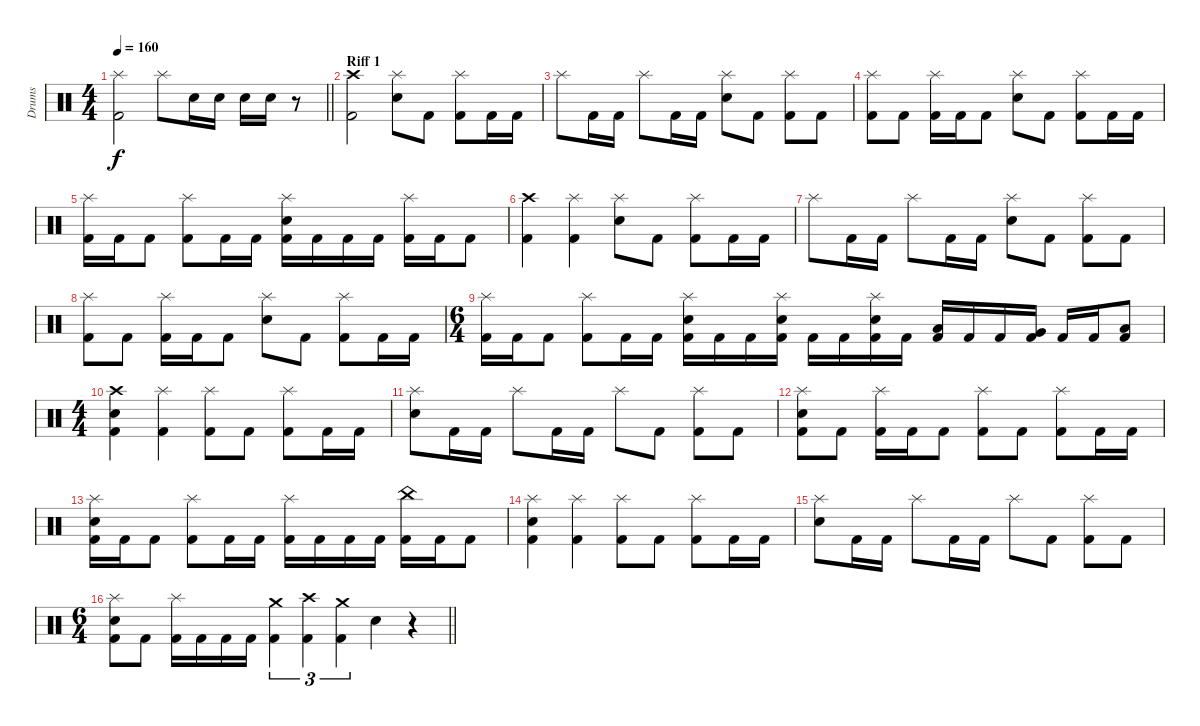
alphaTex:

\track ("Drums" "Drums") {instrument percussion}
\staff {score}
\articulation defaults
\ts (4 4)
\tempo 160
\clef neutral
\barLineRight lightlight
\ks c
("Splash (hit)" "Kick (hit) 2").2{dy f} "Splash (hit)".8 "Snare (hit) 2".16 "Snare (hit) 2".16 "Snare (hit) 2".16 "Snare (hit) 2".16 r.8 |
\section ("" "Riff 1")
("Crash high (hit)" "Kick (hit) 2").2 ("Splash (hit)" "Snare (hit) 2").8 "Kick (hit) 2".8 ("Splash (hit)" "Kick (hit) 2").8 "Kick (hit) 2".16 "Kick (hit) 2".16 |
"Splash (hit)".8 "Kick (hit) 2".16 "Kick (hit) 2".16 "Splash (hit)".8 "Kick (hit) 2".16 "Kick (hit) 2".16 ("Splash (hit)" "Snare (hit) 2").8 "Kick (hit) 2".8 ("Splash (hit)" "Kick (hit) 2").8 "Kick (hit) 2".8 |
("Splash (hit)" "Kick (hit) 2").8 "Kick (hit) 2".8 ("Splash (hit)" "Kick (hit) 2").16 "Kick (hit) 2".16 "Kick (hit) 2".8 ("Splash (hit)" "Snare (hit) 2").8 "Kick (hit) 2".8 ("Splash (hit)" "Kick (hit) 2").8 "Kick (hit) 2".16 "Kick (hit) 2".16 |
("Splash (hit)" "Kick (hit) 2").16 "Kick (hit) 2".16 "Kick (hit) 2".8 ("Splash (hit)" "Kick (hit) 2").8 "Kick (hit) 2".16 "Kick (hit) 2".16 ("Splash (hit)" "Snare (hit) 2" "Kick (hit) 2").16 "Kick (hit) 2".16 "Kick (hit) 2".16 "Kick (hit) 2".16 ("Splash (hit)" "Kick (hit) 2").16 "Kick (hit) 2".16 "Kick (hit) 2".8 |
("Crash high (hit)" "Kick (hit) 2").4 ("Splash (hit)" "Kick (hit) 2").4 ("Splash (hit)" "Snare (hit) 2").8 "Kick (hit) 2".8 ("Splash (hit)" "Kick (hit) 2").8 "Kick (hit) 2".16 "Kick (hit) 2".16 |
"Splash (hit)".8 "Kick (hit) 2".16 "Kick (hit) 2".16 "Splash (hit)".8 "Kick (hit) 2".16 "Kick (hit) 2".16 ("Splash (hit)" "Snare (hit) 2").8 "Kick (hit) 2".8 ("Splash (hit)" "Kick (hit) 2").8 "Kick (hit) 2".8 |
("Splash (hit)" "Kick (hit) 2").8 "Kick (hit) 2".8 ("Splash (hit)" "Kick (hit) 2").16 "Kick (hit) 2".16 "Kick (hit) 2".8 ("Splash (hit)" "Snare (hit) 2").8 "Kick (hit) 2".8 ("Splash (hit)" "Kick (hit) 2").8 "Kick (hit) 2".16 "Kick (hit) 2".16 |
\ts (6 4)
("Splash (hit)" "Kick (hit) 2").16 "Kick (hit) 2".16 "Kick (hit) 2".8 ("Splash (hit)" "Kick (hit) 2").8 "Kick (hit) 2".16 "Kick (hit) 2".16 ("Splash (hit)" "Snare (hit) 2" "Kick (hit) 2").16 "Kick (hit) 2".16 "Kick (hit) 2".16 ("Splash (hit)" "Snare (hit) 2" "Kick (hit) 2").16 "Kick (hit) 2".16 "Kick (hit) 2".16 ("Splash (hit)" "Snare (hit) 2" "Kick (hit) 2").16 "Kick (hit) 2".16 ("Low Tom (hit)" "Kick (hit) 2").16 "Kick (hit) 2".16 "Kick (hit) 2".16 ("Very Low Tom (hit)" "Kick (hit) 2").16 "Kick (hit) 2".16 "Kick (hit) 2".16 ("Low Floor Tom (hit)" "Kick (hit) 2").8 |
\ts (4 4)
("Crash high (hit)" "Snare (hit) 2" "Kick (hit) 2").4 ("Splash (hit)" "Kick (hit) 2").4 ("Splash (hit)" "Kick (hit) 2").8 "Kick (hit) 2".8 ("Splash (hit)" "Kick (hit) 2").8 "Kick (hit) 2".16 "Kick (hit) 2".16 |
("Splash (hit)" "Snare (hit) 2").8 "Kick (hit) 2".16 "Kick (hit) 2".16 "Splash (hit)".8 "Kick (hit) 2".16 "Kick (hit) 2".16 "Splash (hit)".8 "Kick (hit) 2".8 ("Splash (hit)" "Kick (hit) 2").8 "Kick (hit) 2".8 |
("Splash (hit)" "Snare (hit) 2" "Kick (hit) 2").8 "Kick (hit) 2".8 ("Splash (hit)" "Kick (hit) 2").16 "Kick (hit) 2".16 "Kick (hit) 2".8 ("Splash (hit)" "Kick (hit) 2").8 "Kick (hit) 2".8 ("Splash (hit)" "Kick (hit) 2").8 "Kick (hit) 2".16 "Kick (hit) 2".16 |
("Splash (hit)" "Snare (hit) 2" "Kick (hit) 2").16 "Kick (hit) 2".16 "Kick (hit) 2".8 ("Splash (hit)" "Kick (hit) 2").8 "Kick (hit) 2".16 "Kick (hit) 2".16 ("Splash (hit)" "Kick (hit) 2").16 "Kick (hit) 2".16 "Kick (hit) 2".16 "Kick (hit) 2".16 ("China (hit)" "Kick (hit) 2").16 "Kick (hit) 2".16 "Kick (hit) 2".8 |
("Splash (hit)" "Snare (hit) 2" "Kick (hit) 2").4 ("Splash (hit)" "Kick (hit) 2").4 ("Splash (hit)" "Kick (hit) 2").8 "Kick (hit) 2".8 ("Splash (hit)" "Kick (hit) 2").8 "Kick (hit) 2".16 "Kick (hit) 2".16 |
("Splash (hit)" "Snare (hit) 2").8 "Kick (hit) 2".16 "Kick (hit) 2".16 "Splash (hit)".8 "Kick (hit) 2".16 "Kick (hit) 2".16 "Splash (hit)".8 "Kick (hit) 2".8 ("Splash (hit)" "Kick (hit) 2").8 "Kick (hit) 2".8 |
\ts (6 4)
\barLineRight lightlight
("Splash (hit)" "Snare (hit) 2" "Kick (hit) 2").8 "Kick (hit) 2".8 ("Splash (hit)" "Kick (hit) 2").16 "Kick (hit) 2".16 "Kick (hit) 2".16 "Kick (hit) 2".16 ("Crash medium (hit)" "Kick (hit) 2").4{tu (3 2)} ("Crash high (hit)" "Kick (hit) 2").4{tu (3 2)} ("Crash medium (hit)" "Kick (hit) 2").4{tu (3 2)} "Snare (hit) 2".4 r.4
